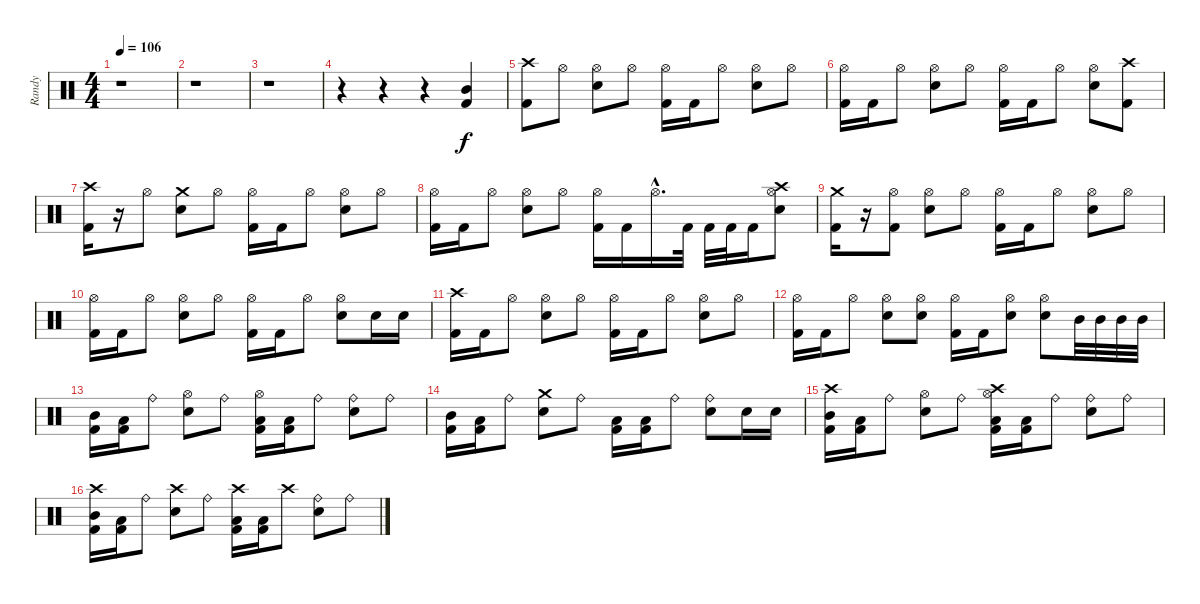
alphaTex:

\track ("Randy" "Randy") {instrument percussion}
\staff {score}
\articulation defaults
\ts (4 4)
\tempo 106
\clef neutral
\ks c
r.1{dy f} |
r.1 |
r.1 |
r.4 r.4 r.4 ("Mid Tom (hit)" "Kick (hit) 2").4 |
("Crash high (hit)" "Kick (hit) 2").8 "Hi-Hat (open)".8 ("Hi-Hat (open)" "Electric Snare (hit)").8 "Hi-Hat (open)".8 ("Hi-Hat (open)" "Kick (hit) 2").16 "Kick (hit) 2".16 "Hi-Hat (open)".8 ("Hi-Hat (open)" "Electric Snare (hit)").8 "Hi-Hat (open)".8 |
("Hi-Hat (open)" "Kick (hit) 2").16 "Kick (hit) 2".16 "Hi-Hat (open)".8 ("Hi-Hat (open)" "Electric Snare (hit)").8 "Hi-Hat (open)".8 ("Hi-Hat (open)" "Kick (hit) 2").16 "Kick (hit) 2".16 "Hi-Hat (open)".8 ("Hi-Hat (open)" "Electric Snare (hit)").8 ("Crash high (hit)" "Kick (hit) 2").8 |
("Crash high (hit)" "Kick (hit) 2").16 r.16 "Hi-Hat (open)".8 ("Crash medium (hit)" "Electric Snare (hit)").8 "Hi-Hat (open)".8 ("Hi-Hat (open)" "Kick (hit) 2").16 "Kick (hit) 2".16 "Hi-Hat (open)".8 ("Hi-Hat (open)" "Electric Snare (hit)").8 "Hi-Hat (open)".8 |
("Hi-Hat (open)" "Kick (hit) 2").16 "Kick (hit) 2".16 "Hi-Hat (open)".8 ("Hi-Hat (open)" "Electric Snare (hit)").8 "Hi-Hat (open)".8 ("Hi-Hat (open)" "Kick (hit) 2").16 "Kick (hit) 2".16 "Hi-Hat (open)"{hac}.16{d} "Kick (hit) 2".32 "Kick (hit) 2".32 "Kick (hit) 2".32 "Kick (hit) 2".16 ("Hi-Hat (open)" "Crash high (hit)" "Electric Snare (hit)").8 |
("Crash medium (hit)" "Kick (hit) 2").16 r.16 ("Hi-Hat (open)" "Kick (hit) 2").8 ("Hi-Hat (open)" "Electric Snare (hit)").8 "Hi-Hat (open)".8 ("Hi-Hat (open)" "Kick (hit) 2").16 "Kick (hit) 2".16 "Hi-Hat (open)".8 ("Hi-Hat (open)" "Electric Snare (hit)").8 "Hi-Hat (open)".8 |
("Hi-Hat (open)" "Kick (hit) 2").16 "Kick (hit) 2".16 "Hi-Hat (open)".8 ("Hi-Hat (open)" "Electric Snare (hit)").8 "Hi-Hat (open)".8 ("Hi-Hat (open)" "Kick (hit) 2").16 "Kick (hit) 2".16 "Hi-Hat (open)".8 ("Hi-Hat (open)" "Electric Snare (hit)").8 "Electric Snare (hit)".16 "Electric Snare (hit)".16 |
("Crash high (hit)" "Kick (hit) 2").16 "Kick (hit) 2".16 "Hi-Hat (open)".8 ("Hi-Hat (open)" "Electric Snare (hit)").8 "Hi-Hat (open)".8 ("Hi-Hat (open)" "Kick (hit) 2").16 "Kick (hit) 2".16 "Hi-Hat (open)".8 ("Hi-Hat (open)" "Electric Snare (hit)").8 "Hi-Hat (open)".8 |
("Hi-Hat (open)" "Kick (hit) 2").16 "Kick (hit) 2".16 "Hi-Hat (open)".8 ("Hi-Hat (open)" "Electric Snare (hit)").8 ("Hi-Hat (open)" "Electric Snare (hit)").8 ("Hi-Hat (open)" "Kick (hit) 2").16 "Kick (hit) 2".16 ("Hi-Hat (open)" "Electric Snare (hit)").8 ("Hi-Hat (open)" "Electric Snare (hit)").8 "Mid Tom (hit)".32 "Mid Tom (hit)".32 "Mid Tom (hit)".32 "Mid Tom (hit)".32 |
("Mid Tom (hit)" "Kick (hit) 2").16 ("Low Tom (hit)" "Kick (hit) 2").16 "Ride (bell)".8 ("Hi-Hat (open)" "Electric Snare (hit)").8 "Ride (bell)".8 ("Hi-Hat (open)" "Low Tom (hit)" "Kick (hit) 2").16 ("Low Tom (hit)" "Kick (hit) 2").16 "Ride (bell)".8 ("Ride (bell)" "Electric Snare (hit)").8 "Ride (bell)".8 |
("Mid Tom (hit)" "Kick (hit) 2").16 ("Low Tom (hit)" "Kick (hit) 2").16 "Ride (bell)".8 ("Crash medium (hit)" "Electric Snare (hit)").8 "Ride (bell)".8 ("Low Tom (hit)" "Kick (hit) 2").16 ("Low Tom (hit)" "Kick (hit) 2").16 "Ride (bell)".8 ("Ride (bell)" "Electric Snare (hit)").8 "Electric Snare (hit)".16 "Electric Snare (hit)".16 |
("Crash high (hit)" "Mid Tom (hit)" "Kick (hit) 2").16 ("Low Tom (hit)" "Kick (hit) 2").16 "Ride (bell)".8 ("Hi-Hat (open)" "Electric Snare (hit)").8 "Ride (bell)".8 ("Crash high (hit)" "Hi-Hat (open)" "Low Tom (hit)" "Kick (hit) 2").16 ("Low Tom (hit)" "Kick (hit) 2").16 "Ride (bell)".8 ("Ride (bell)" "Electric Snare (hit)").8 "Ride (bell)".8 |
("Crash high (hit)" "Mid Tom (hit)" "Kick (hit) 2").16 ("Low Tom (hit)" "Kick (hit) 2").16 "Ride (bell)".8 ("Crash high (hit)" "Electric Snare (hit)").8 "Ride (bell)".8 ("Crash high (hit)" "Low Tom (hit)" "Kick (hit) 2").16 ("Low Tom (hit)" "Kick (hit) 2").16 "Crash high (hit)".8 ("Ride (bell)" "Electric Snare (hit)").8 "Ride (bell)".8
